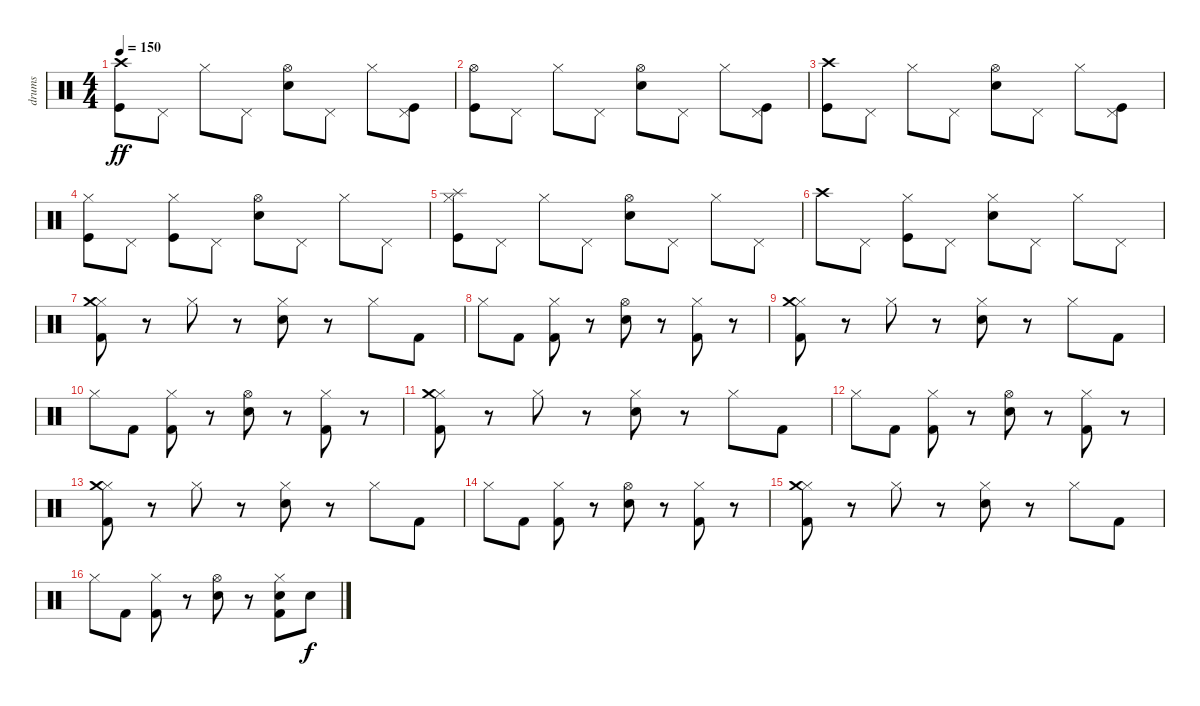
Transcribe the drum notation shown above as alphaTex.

\track ("drums" "drums") {instrument percussion}
\staff {score}
\articulation defaults
\ts (4 4)
\tempo 150
\clef neutral
\ks c
("Crash high (hit)" "Kick (hit)").8{dy ff} "Pedal Hi-Hat (hit)".8 "Hi-Hat (closed)".8 "Pedal Hi-Hat (hit)".8 ("Hi-Hat (open)" "Electric Snare (hit)").8 "Pedal Hi-Hat (hit)".8 "Hi-Hat (closed)".8 ("Pedal Hi-Hat (hit)" "Kick (hit)").8 |
("Hi-Hat (open)" "Kick (hit)").8 "Pedal Hi-Hat (hit)".8 "Hi-Hat (closed)".8 "Pedal Hi-Hat (hit)".8 ("Hi-Hat (open)" "Electric Snare (hit)").8 "Pedal Hi-Hat (hit)".8 "Hi-Hat (closed)".8 ("Pedal Hi-Hat (hit)" "Kick (hit)").8 |
("Crash high (hit)" "Kick (hit)").8 "Pedal Hi-Hat (hit)".8 "Hi-Hat (closed)".8 "Pedal Hi-Hat (hit)".8 ("Hi-Hat (open)" "Electric Snare (hit)").8 "Pedal Hi-Hat (hit)".8 "Hi-Hat (closed)".8 ("Pedal Hi-Hat (hit)" "Kick (hit)").8 |
("Hi-Hat (closed)" "Kick (hit)").8 "Pedal Hi-Hat (hit)".8 ("Hi-Hat (closed)" "Kick (hit)").8 "Pedal Hi-Hat (hit)".8 ("Hi-Hat (open)" "Electric Snare (hit)").8 "Pedal Hi-Hat (hit)".8 "Hi-Hat (closed)".8 "Pedal Hi-Hat (hit)".8 |
("Hi-Hat (closed)" "Splash (hit)" "Kick (hit)").8 "Pedal Hi-Hat (hit)".8 "Hi-Hat (closed)".8 "Pedal Hi-Hat (hit)".8 ("Hi-Hat (open)" "Electric Snare (hit)").8 "Pedal Hi-Hat (hit)".8 "Hi-Hat (closed)".8 "Pedal Hi-Hat (hit)".8 |
"Crash high (hit)".8 "Pedal Hi-Hat (hit)".8 ("Hi-Hat (closed)" "Kick (hit)").8 "Pedal Hi-Hat (hit)".8 ("Hi-Hat (closed)" "Electric Snare (hit)").8 "Pedal Hi-Hat (hit)".8 "Hi-Hat (closed)".8 "Pedal Hi-Hat (hit)".8 |
("Hi-Hat (closed)" "Kick (hit) 2" "Crash medium (hit)").8 r.8 "Hi-Hat (closed)".8 r.8 ("Hi-Hat (closed)" "Electric Snare (hit)").8 r.8 "Hi-Hat (closed)".8 "Kick (hit) 2".8 |
"Hi-Hat (closed)".8 "Kick (hit) 2".8 ("Hi-Hat (closed)" "Kick (hit) 2").8 r.8 ("Hi-Hat (open)" "Electric Snare (hit)").8 r.8 ("Kick (hit) 2" "Hi-Hat (closed)").8 r.8 |
("Hi-Hat (closed)" "Kick (hit) 2" "Crash medium (hit)").8 r.8 "Hi-Hat (closed)".8 r.8 ("Hi-Hat (closed)" "Electric Snare (hit)").8 r.8 "Hi-Hat (closed)".8 "Kick (hit) 2".8 |
"Hi-Hat (closed)".8 "Kick (hit) 2".8 ("Hi-Hat (closed)" "Kick (hit) 2").8 r.8 ("Hi-Hat (open)" "Electric Snare (hit)").8 r.8 ("Kick (hit) 2" "Hi-Hat (closed)").8 r.8 |
("Hi-Hat (closed)" "Kick (hit) 2" "Crash medium (hit)").8 r.8 "Hi-Hat (closed)".8 r.8 ("Hi-Hat (closed)" "Electric Snare (hit)").8 r.8 "Hi-Hat (closed)".8 "Kick (hit) 2".8 |
"Hi-Hat (closed)".8 "Kick (hit) 2".8 ("Hi-Hat (closed)" "Kick (hit) 2").8 r.8 ("Hi-Hat (open)" "Electric Snare (hit)").8 r.8 ("Kick (hit) 2" "Hi-Hat (closed)").8 r.8 |
("Hi-Hat (closed)" "Kick (hit) 2" "Crash medium (hit)").8 r.8 "Hi-Hat (closed)".8 r.8 ("Hi-Hat (closed)" "Electric Snare (hit)").8 r.8 "Hi-Hat (closed)".8 "Kick (hit) 2".8 |
"Hi-Hat (closed)".8 "Kick (hit) 2".8 ("Hi-Hat (closed)" "Kick (hit) 2").8 r.8 ("Hi-Hat (open)" "Electric Snare (hit)").8 r.8 ("Kick (hit) 2" "Hi-Hat (closed)").8 r.8 |
("Hi-Hat (closed)" "Kick (hit) 2" "Crash medium (hit)").8 r.8 "Hi-Hat (closed)".8 r.8 ("Hi-Hat (closed)" "Electric Snare (hit)").8 r.8 "Hi-Hat (closed)".8 "Kick (hit) 2".8 |
"Hi-Hat (closed)".8 "Kick (hit) 2".8 ("Hi-Hat (closed)" "Kick (hit) 2").8 r.8 ("Hi-Hat (open)" "Electric Snare (hit)").8 r.8 ("Snare (hit) 2" "Kick (hit) 2" "Hi-Hat (closed)").8 "Electric Snare (hit)".8{dy f}
